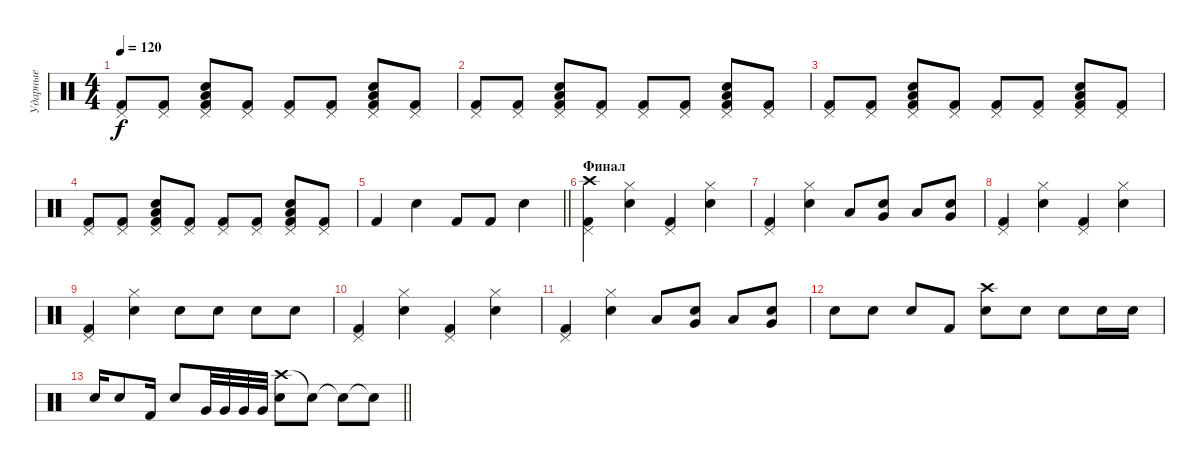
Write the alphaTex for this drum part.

\track ("Ударные" "Ударные") {instrument percussion}
\staff {score}
\articulation defaults
\ts (4 4)
\tempo 120
\clef neutral
\ks c
("Pedal Hi-Hat (hit)" "Kick (hit) 2").8{dy f} ("Pedal Hi-Hat (hit)" "Kick (hit) 2").8 ("Pedal Hi-Hat (hit)" "Snare (hit) 2" "Low Tom (hit)" "Kick (hit) 2").8{bd 60} ("Pedal Hi-Hat (hit)" "Kick (hit) 2").8 ("Pedal Hi-Hat (hit)" "Kick (hit) 2").8 ("Pedal Hi-Hat (hit)" "Kick (hit) 2").8 ("Pedal Hi-Hat (hit)" "Snare (hit) 2" "Low Tom (hit)" "Kick (hit) 2").8{bd 60} ("Pedal Hi-Hat (hit)" "Kick (hit) 2").8 |
("Pedal Hi-Hat (hit)" "Kick (hit) 2").8 ("Pedal Hi-Hat (hit)" "Kick (hit) 2").8 ("Pedal Hi-Hat (hit)" "Snare (hit) 2" "Low Tom (hit)" "Kick (hit) 2").8{bd 60} ("Pedal Hi-Hat (hit)" "Kick (hit) 2").8 ("Pedal Hi-Hat (hit)" "Kick (hit) 2").8 ("Pedal Hi-Hat (hit)" "Kick (hit) 2").8 ("Pedal Hi-Hat (hit)" "Snare (hit) 2" "Low Tom (hit)" "Kick (hit) 2").8{bd 60} ("Pedal Hi-Hat (hit)" "Kick (hit) 2").8 |
("Pedal Hi-Hat (hit)" "Kick (hit) 2").8 ("Pedal Hi-Hat (hit)" "Kick (hit) 2").8 ("Pedal Hi-Hat (hit)" "Snare (hit) 2" "Low Tom (hit)" "Kick (hit) 2").8{bd 60} ("Pedal Hi-Hat (hit)" "Kick (hit) 2").8 ("Pedal Hi-Hat (hit)" "Kick (hit) 2").8 ("Pedal Hi-Hat (hit)" "Kick (hit) 2").8 ("Pedal Hi-Hat (hit)" "Snare (hit) 2" "Low Tom (hit)" "Kick (hit) 2").8{bd 60} ("Pedal Hi-Hat (hit)" "Kick (hit) 2").8 |
("Pedal Hi-Hat (hit)" "Kick (hit) 2").8 ("Pedal Hi-Hat (hit)" "Kick (hit) 2").8 ("Pedal Hi-Hat (hit)" "Snare (hit) 2" "Low Tom (hit)" "Kick (hit) 2").8{bd 60} ("Pedal Hi-Hat (hit)" "Kick (hit) 2").8 ("Pedal Hi-Hat (hit)" "Kick (hit) 2").8 ("Pedal Hi-Hat (hit)" "Kick (hit) 2").8 ("Pedal Hi-Hat (hit)" "Snare (hit) 2" "Low Tom (hit)" "Kick (hit) 2").8{bd 60} ("Pedal Hi-Hat (hit)" "Kick (hit) 2").8 |
\barLineRight lightlight "Kick (hit) 2".4 "Snare (hit) 2".4 "Kick (hit) 2".8 "Kick (hit) 2".8 "Snare (hit) 2".4
|
\section ("" "Финал")
("Pedal Hi-Hat (hit)" "Crash high (hit)" "Kick (hit) 2").4 ("Hi-Hat (closed)" "Snare (hit) 2").4 ("Pedal Hi-Hat (hit)" "Kick (hit) 2").4 ("Hi-Hat (closed)" "Snare (hit) 2").4 |
("Pedal Hi-Hat (hit)" "Kick (hit) 2").4 ("Hi-Hat (closed)" "Snare (hit) 2").4 "Low Tom (hit)".8 ("Snare (hit) 2" "Very Low Tom (hit)").8 "Low Tom (hit)".8 ("Snare (hit) 2" "Very Low Tom (hit)").8 |
("Pedal Hi-Hat (hit)" "Kick (hit) 2").4 ("Hi-Hat (closed)" "Snare (hit) 2").4 ("Pedal Hi-Hat (hit)" "Kick (hit) 2").4 ("Hi-Hat (closed)" "Snare (hit) 2").4 |
("Pedal Hi-Hat (hit)" "Kick (hit) 2").4 ("Hi-Hat (closed)" "Snare (hit) 2").4 "Snare (hit) 2".8 "Snare (hit) 2".8 "Snare (hit) 2".8 "Snare (hit) 2".8 |
("Pedal Hi-Hat (hit)" "Kick (hit) 2").4 ("Hi-Hat (closed)" "Snare (hit) 2").4 ("Pedal Hi-Hat (hit)" "Kick (hit) 2").4 ("Hi-Hat (closed)" "Snare (hit) 2").4 |
("Pedal Hi-Hat (hit)" "Kick (hit) 2").4 ("Hi-Hat (closed)" "Snare (hit) 2").4 "Low Tom (hit)".8 ("Snare (hit) 2" "Very Low Tom (hit)").8 "Low Tom (hit)".8 ("Snare (hit) 2" "Very Low Tom (hit)").8 |
"Snare (hit) 2".8 "Snare (hit) 2".8 "Snare (hit) 2".8 "Kick (hit) 2".8 ("Crash high (hit)" "Snare (hit) 2").8 "Snare (hit) 2".8 "Snare (hit) 2".8 "Snare (hit) 2".16 "Snare (hit) 2".16 |
\barLineRight lightlight "Snare (hit) 2".16 "Snare (hit) 2".8 "Kick (hit) 2".16 "Snare (hit) 2".8 "Very Low Tom (hit)".32 "Very Low Tom (hit)".32 "Very Low Tom (hit)".32 "Very Low Tom (hit)".32
("Crash high (hit)" "Snare (hit) 2").8 "Snare (hit)"{t}.8 "Snare (hit)"{t}.8 "Snare (hit)"{t}.8
